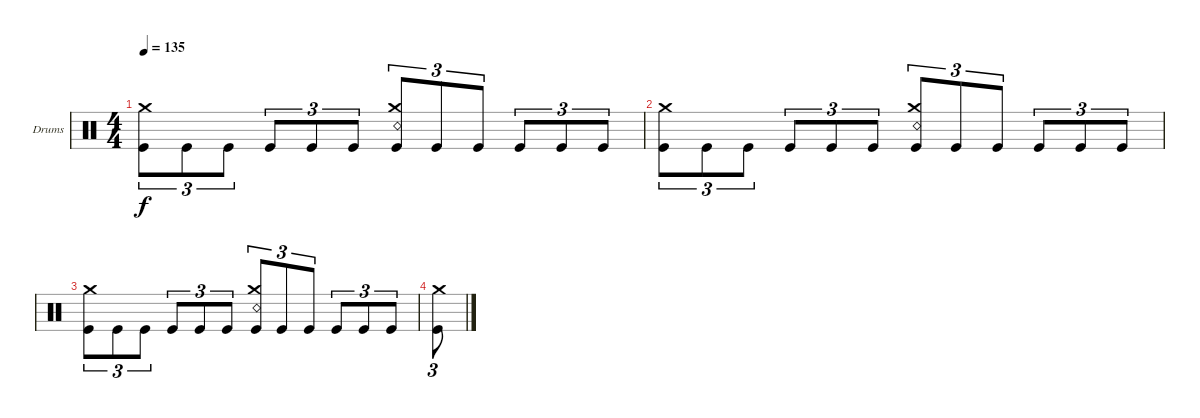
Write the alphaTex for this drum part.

\defaultSystemsLayout 4
\bracketExtendMode groupsimilarinstruments
\firstSystemTrackNameOrientation horizontal
\otherSystemsTrackNameOrientation horizontal
\track ("Drumkit" "Drums") {instrument percussion}
\staff {score}
\articulation defaults
\ts (4 4)
\tempo 135
\clef neutral
\ks c
("Kick (hit)" "Crash medium (hit)").8{tu (3 2) dy f} "Kick (hit)".8{tu (3 2)} "Kick (hit)".8{tu (3 2)} "Kick (hit)".8{tu (3 2)} "Kick (hit)".8{tu (3 2)} "Kick (hit)".8{tu (3 2)} ("Kick (hit)" "Crash medium (hit)" "Snare (rim shot)").8{tu (3 2)} "Kick (hit)".8{tu (3 2)} "Kick (hit)".8{tu (3 2)} "Kick (hit)".8{tu (3 2)} "Kick (hit)".8{tu (3 2)} "Kick (hit)".8{tu (3 2)} |
("Kick (hit)" "Crash medium (hit)").8{tu (3 2)} "Kick (hit)".8{tu (3 2)} "Kick (hit)".8{tu (3 2)} "Kick (hit)".8{tu (3 2)} "Kick (hit)".8{tu (3 2)} "Kick (hit)".8{tu (3 2)} ("Kick (hit)" "Crash medium (hit)" "Snare (rim shot)").8{tu (3 2)} "Kick (hit)".8{tu (3 2)} "Kick (hit)".8{tu (3 2)} "Kick (hit)".8{tu (3 2)} "Kick (hit)".8{tu (3 2)} "Kick (hit)".8{tu (3 2)} |
("Kick (hit)" "Crash medium (hit)").8{tu (3 2)} "Kick (hit)".8{tu (3 2)} "Kick (hit)".8{tu (3 2)} "Kick (hit)".8{tu (3 2)} "Kick (hit)".8{tu (3 2)} "Kick (hit)".8{tu (3 2)} ("Kick (hit)" "Crash medium (hit)" "Snare (rim shot)").8{tu (3 2)} "Kick (hit)".8{tu (3 2)} "Kick (hit)".8{tu (3 2)} "Kick (hit)".8{tu (3 2)} "Kick (hit)".8{tu (3 2)} "Kick (hit)".8{tu (3 2)} |
("Kick (hit)" "Crash medium (hit)").8{tu (3 2)}
